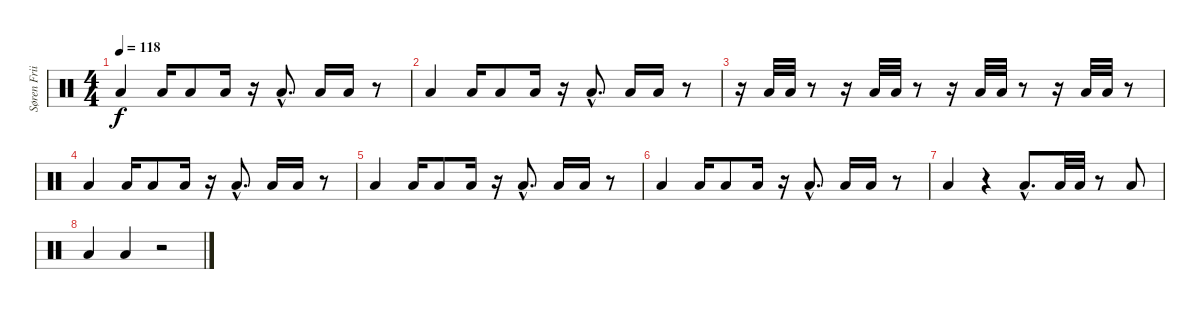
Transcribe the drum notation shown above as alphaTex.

\track ("Søren Friis (Drums)" "Søren Frii") {instrument percussion}
\staff {score}
\articulation defaults
\ts (4 4)
\tempo 118
\clef neutral
\ks c "Low Floor Tom (hit)".4{dy f} "Low Floor Tom (hit)".16 "Low Floor Tom (hit)".8 "Low Floor Tom (hit)".16
r.16 "Low Floor Tom (hit)"{hac}.8{d} "Low Floor Tom (hit)".16 "Low Floor Tom (hit)".16 r.8 |
"Low Floor Tom (hit)".4 "Low Floor Tom (hit)".16 "Low Floor Tom (hit)".8 "Low Floor Tom (hit)".16 r.16 "Low Floor Tom (hit)"{hac}.8{d} "Low Floor Tom (hit)".16 "Low Floor Tom (hit)".16 r.8 |
r.16 "Low Floor Tom (hit)".32 "Low Floor Tom (hit)".32 r.8 r.16 "Low Floor Tom (hit)".32 "Low Floor Tom (hit)".32 r.8 r.16 "Low Floor Tom (hit)".32 "Low Floor Tom (hit)".32 r.8 r.16 "Low Floor Tom (hit)".32 "Low Floor Tom (hit)".32 r.8 |
"Low Floor Tom (hit)".4 "Low Floor Tom (hit)".16 "Low Floor Tom (hit)".8 "Low Floor Tom (hit)".16 r.16 "Low Floor Tom (hit)"{hac}.8{d} "Low Floor Tom (hit)".16 "Low Floor Tom (hit)".16 r.8 |
"Low Floor Tom (hit)".4 "Low Floor Tom (hit)".16 "Low Floor Tom (hit)".8 "Low Floor Tom (hit)".16 r.16 "Low Floor Tom (hit)"{hac}.8{d} "Low Floor Tom (hit)".16 "Low Floor Tom (hit)".16 r.8 |
"Low Floor Tom (hit)".4 "Low Floor Tom (hit)".16 "Low Floor Tom (hit)".8 "Low Floor Tom (hit)".16 r.16 "Low Floor Tom (hit)"{hac}.8{d} "Low Floor Tom (hit)".16 "Low Floor Tom (hit)".16 r.8 |
"Low Floor Tom (hit)".4 r.4 "Low Floor Tom (hit)"{hac}.8{d} "Low Floor Tom (hit)".32 "Low Floor Tom (hit)".32 r.8 "Low Floor Tom (hit)".8 |
"Low Floor Tom (hit)".4 "Low Floor Tom (hit)".4 r.2
